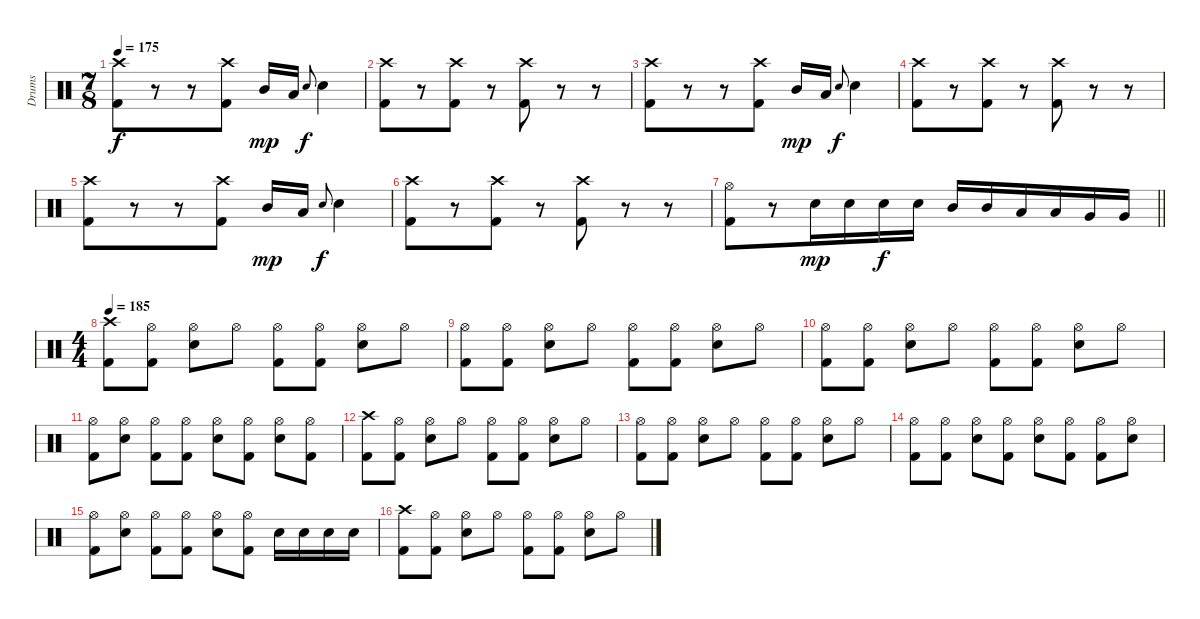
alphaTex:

\track ("Drums" "Drums") {instrument percussion}
\staff {score}
\articulation defaults
\ts (7 8)
\tempo 175
\clef neutral
\ks c
("Crash high (hit)" "Kick (hit) 2").8{dy f} r.8 r.8 ("Crash high (hit)" "Kick (hit) 2").8 "Mid Tom (hit)".16{dy mp} "Low Tom (hit)".16 "Snare (hit) 2".8{gr onbeat dy f} "Snare (hit) 2".4 |
("Crash high (hit)" "Kick (hit) 2").8 r.8 ("Crash high (hit)" "Kick (hit) 2").8 r.8 ("Crash high (hit)" "Kick (hit) 2").8 r.8 r.8 |
("Crash high (hit)" "Kick (hit) 2").8 r.8 r.8 ("Crash high (hit)" "Kick (hit) 2").8 "Mid Tom (hit)".16{dy mp} "Low Tom (hit)".16 "Snare (hit) 2".8{gr onbeat dy f} "Snare (hit) 2".4 |
("Crash high (hit)" "Kick (hit) 2").8 r.8 ("Crash high (hit)" "Kick (hit) 2").8 r.8 ("Crash high (hit)" "Kick (hit) 2").8 r.8 r.8 |
("Crash high (hit)" "Kick (hit) 2").8 r.8 r.8 ("Crash high (hit)" "Kick (hit) 2").8 "Mid Tom (hit)".16{dy mp} "Low Tom (hit)".16 "Snare (hit) 2".8{gr onbeat dy f} "Snare (hit) 2".4 |
("Crash high (hit)" "Kick (hit) 2").8 r.8 ("Crash high (hit)" "Kick (hit) 2").8 r.8 ("Crash high (hit)" "Kick (hit) 2").8 r.8 r.8 |
\barLineRight lightlight
("Hi-Hat (open)" "Kick (hit) 2").8 r.8 "Snare (hit) 2".16{dy mp} "Snare (hit) 2".16 "Snare (hit) 2".16{dy f} "Snare (hit) 2".16 "Mid Tom (hit)".16 "Mid Tom (hit)".16 "Low Tom (hit)".16 "Low Tom (hit)".16 "Very Low Tom (hit)".16 "Very Low Tom (hit)".16 |
\ts (4 4)
\tempo 185
("Crash high (hit)" "Kick (hit) 2").8 ("Hi-Hat (open)" "Kick (hit) 2").8 ("Hi-Hat (open)" "Snare (hit) 2").8 "Hi-Hat (open)".8 ("Hi-Hat (open)" "Kick (hit) 2").8 ("Hi-Hat (open)" "Kick (hit) 2").8 ("Hi-Hat (open)" "Snare (hit) 2").8 "Hi-Hat (open)".8 |
("Hi-Hat (open)" "Kick (hit) 2").8 ("Hi-Hat (open)" "Kick (hit) 2").8 ("Hi-Hat (open)" "Snare (hit) 2").8 "Hi-Hat (open)".8 ("Hi-Hat (open)" "Kick (hit) 2").8 ("Hi-Hat (open)" "Kick (hit) 2").8 ("Hi-Hat (open)" "Snare (hit) 2").8 "Hi-Hat (open)".8 |
("Hi-Hat (open)" "Kick (hit) 2").8 ("Hi-Hat (open)" "Kick (hit) 2").8 ("Hi-Hat (open)" "Snare (hit) 2").8 "Hi-Hat (open)".8 ("Hi-Hat (open)" "Kick (hit) 2").8 ("Hi-Hat (open)" "Kick (hit) 2").8 ("Hi-Hat (open)" "Snare (hit) 2").8 "Hi-Hat (open)".8 |
("Hi-Hat (open)" "Kick (hit) 2").8 ("Hi-Hat (open)" "Snare (hit) 2").8 ("Hi-Hat (open)" "Kick (hit) 2").8 ("Hi-Hat (open)" "Kick (hit) 2").8 ("Hi-Hat (open)" "Snare (hit) 2").8 ("Hi-Hat (open)" "Kick (hit) 2").8 ("Hi-Hat (open)" "Snare (hit) 2").8 ("Hi-Hat (open)" "Kick (hit) 2").8 |
("Crash high (hit)" "Kick (hit) 2").8 ("Hi-Hat (open)" "Kick (hit) 2").8 ("Hi-Hat (open)" "Snare (hit) 2").8 "Hi-Hat (open)".8 ("Hi-Hat (open)" "Kick (hit) 2").8 ("Hi-Hat (open)" "Kick (hit) 2").8 ("Hi-Hat (open)" "Snare (hit) 2").8 "Hi-Hat (open)".8 |
("Hi-Hat (open)" "Kick (hit) 2").8 ("Hi-Hat (open)" "Kick (hit) 2").8 ("Hi-Hat (open)" "Snare (hit) 2").8 "Hi-Hat (open)".8 ("Hi-Hat (open)" "Kick (hit) 2").8 ("Hi-Hat (open)" "Kick (hit) 2").8 ("Hi-Hat (open)" "Snare (hit) 2").8 "Hi-Hat (open)".8 |
("Hi-Hat (open)" "Kick (hit) 2").8 ("Hi-Hat (open)" "Kick (hit) 2").8 ("Hi-Hat (open)" "Snare (hit) 2").8 ("Hi-Hat (open)" "Kick (hit) 2").8 ("Hi-Hat (open)" "Snare (hit) 2").8 ("Hi-Hat (open)" "Kick (hit) 2").8 ("Hi-Hat (open)" "Kick (hit) 2").8 ("Hi-Hat (open)" "Snare (hit) 2").8 |
("Hi-Hat (open)" "Kick (hit) 2").8 ("Hi-Hat (open)" "Snare (hit) 2").8 ("Hi-Hat (open)" "Kick (hit) 2").8 ("Hi-Hat (open)" "Kick (hit) 2").8 ("Hi-Hat (open)" "Snare (hit) 2").8 ("Hi-Hat (open)" "Kick (hit) 2").8 "Snare (hit) 2".16 "Snare (hit) 2".16 "Snare (hit) 2".16 "Snare (hit) 2".16 |
("Crash high (hit)" "Kick (hit) 2").8 ("Hi-Hat (open)" "Kick (hit) 2").8 ("Hi-Hat (open)" "Snare (hit) 2").8 "Hi-Hat (open)".8 ("Hi-Hat (open)" "Kick (hit) 2").8 ("Hi-Hat (open)" "Kick (hit) 2").8 ("Hi-Hat (open)" "Snare (hit) 2").8 "Hi-Hat (open)".8
